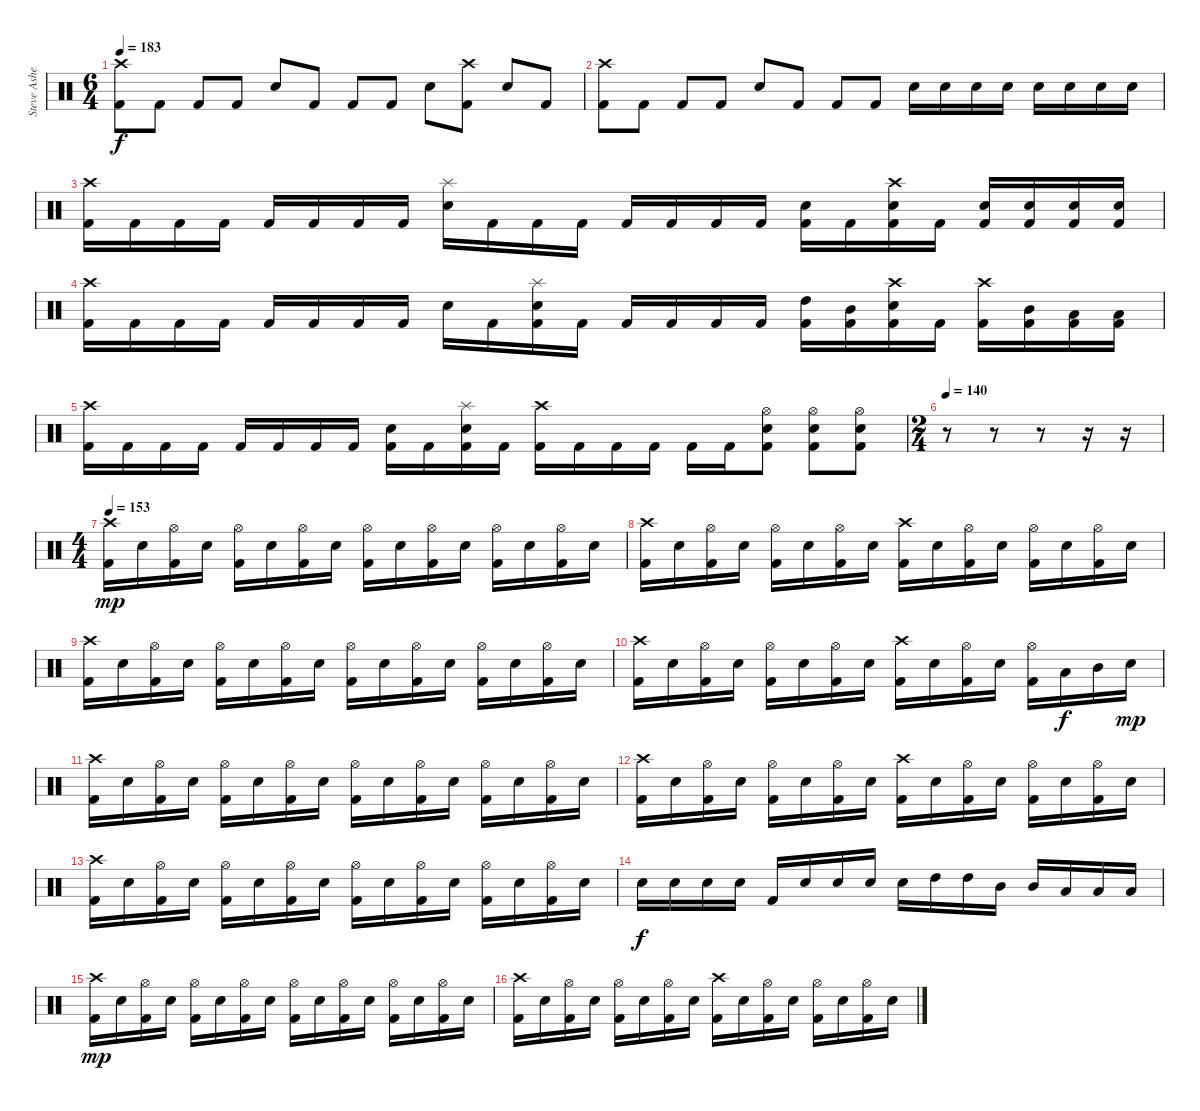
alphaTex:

\track ("Steve Asheim" "Steve Ashe") {instrument percussion}
\staff {score}
\articulation defaults
\ts (6 4)
\tempo 183
\clef neutral
\ks c
("Crash high (hit)" "Kick (hit) 2").8{dy f} "Kick (hit) 2".8 "Kick (hit) 2".8 "Kick (hit) 2".8 "Electric Snare (hit)".8 "Kick (hit) 2".8 "Kick (hit) 2".8 "Kick (hit) 2".8 "Electric Snare (hit)".8 ("Crash high (hit)" "Kick (hit) 2").8 "Electric Snare (hit)".8 "Kick (hit) 2".8 |
("Crash high (hit)" "Kick (hit) 2").8 "Kick (hit) 2".8 "Kick (hit) 2".8 "Kick (hit) 2".8 "Electric Snare (hit)".8 "Kick (hit) 2".8 "Kick (hit) 2".8 "Kick (hit) 2".8 "Electric Snare (hit)".16 "Electric Snare (hit)".16 "Electric Snare (hit)".16 "Electric Snare (hit)".16 "Electric Snare (hit)".16 "Electric Snare (hit)".16 "Electric Snare (hit)".16 "Electric Snare (hit)".16 |
("Crash high (hit)" "Kick (hit) 2").16 "Kick (hit) 2".16 "Kick (hit) 2".16 "Kick (hit) 2".16 "Kick (hit) 2".16 "Kick (hit) 2".16 "Kick (hit) 2".16 "Kick (hit) 2".16 ("Splash (hit)" "Electric Snare (hit)").16 "Kick (hit) 2".16 "Kick (hit) 2".16 "Kick (hit) 2".16 "Kick (hit) 2".16 "Kick (hit) 2".16 "Kick (hit) 2".16 "Kick (hit) 2".16 ("Electric Snare (hit)" "Kick (hit) 2").16 "Kick (hit) 2".16 ("Crash high (hit)" "Electric Snare (hit)" "Kick (hit) 2").16 "Kick (hit) 2".16 ("Snare (hit) 2" "Kick (hit) 2").16 ("Snare (hit) 2" "Kick (hit) 2").16 ("Snare (hit) 2" "Kick (hit) 2").16 ("Snare (hit) 2" "Kick (hit) 2").16 |
("Crash high (hit)" "Kick (hit) 2").16 "Kick (hit) 2".16 "Kick (hit) 2".16 "Kick (hit) 2".16 "Kick (hit) 2".16 "Kick (hit) 2".16 "Kick (hit) 2".16 "Kick (hit) 2".16 "Electric Snare (hit)".16 "Kick (hit) 2".16 ("Splash (hit)" "Electric Snare (hit)" "Kick (hit) 2").16 "Kick (hit) 2".16 "Kick (hit) 2".16 "Kick (hit) 2".16 "Kick (hit) 2".16 "Kick (hit) 2".16 ("High Tom (hit)" "Kick (hit) 2").16 ("Mid Tom (hit)" "Kick (hit) 2").16 ("Crash high (hit)" "Electric Snare (hit)" "Kick (hit) 2").16 "Kick (hit) 2".16 ("Crash high (hit)" "Kick (hit) 2").16 ("Mid Tom (hit)" "Kick (hit) 2").16 ("Low Tom (hit)" "Kick (hit) 2").16 ("Low Tom (hit)" "Kick (hit) 2").16 |
("Crash high (hit)" "Kick (hit) 2").16 "Kick (hit) 2".16 "Kick (hit) 2".16 "Kick (hit) 2".16 "Kick (hit) 2".16 "Kick (hit) 2".16 "Kick (hit) 2".16 "Kick (hit) 2".16 ("Electric Snare (hit)" "Kick (hit) 2").16 "Kick (hit) 2".16 ("Splash (hit)" "Electric Snare (hit)" "Kick (hit) 2").16 "Kick (hit) 2".16 ("Crash high (hit)" "Kick (hit) 2").16 "Kick (hit) 2".16 "Kick (hit) 2".16 "Kick (hit) 2".16 "Kick (hit) 2".16 "Kick (hit) 2".16 ("Hi-Hat (open)" "Kick (hit) 2" "Electric Snare (hit)").8 ("Hi-Hat (open)" "Kick (hit) 2" "Electric Snare (hit)").8 ("Hi-Hat (open)" "Kick (hit) 2" "Electric Snare (hit)").8 |
\ts (2 4)
\tempo 140
r.8 r.8 r.8 r.16 r.16 |
\ts (4 4)
\tempo 153
("Crash high (hit)" "Kick (hit) 2").16{dy mp} "Electric Snare (hit)".16 ("Hi-Hat (open)" "Kick (hit) 2").16 "Electric Snare (hit)".16 ("Hi-Hat (open)" "Kick (hit) 2").16 "Electric Snare (hit)".16 ("Hi-Hat (open)" "Kick (hit) 2").16 "Electric Snare (hit)".16 ("Hi-Hat (open)" "Kick (hit) 2").16 "Electric Snare (hit)".16 ("Hi-Hat (open)" "Kick (hit) 2").16 "Electric Snare (hit)".16 ("Hi-Hat (open)" "Kick (hit) 2").16 "Electric Snare (hit)".16 ("Hi-Hat (open)" "Kick (hit) 2").16 "Electric Snare (hit)".16 |
("Crash high (hit)" "Kick (hit) 2").16 "Electric Snare (hit)".16 ("Hi-Hat (open)" "Kick (hit) 2").16 "Electric Snare (hit)".16 ("Hi-Hat (open)" "Kick (hit) 2").16 "Electric Snare (hit)".16 ("Hi-Hat (open)" "Kick (hit) 2").16 "Electric Snare (hit)".16 ("Crash high (hit)" "Kick (hit) 2").16 "Electric Snare (hit)".16 ("Hi-Hat (open)" "Kick (hit) 2").16 "Electric Snare (hit)".16 ("Hi-Hat (open)" "Kick (hit) 2").16 "Electric Snare (hit)".16 ("Hi-Hat (open)" "Kick (hit) 2").16 "Electric Snare (hit)".16 |
("Crash high (hit)" "Kick (hit) 2").16 "Electric Snare (hit)".16 ("Hi-Hat (open)" "Kick (hit) 2").16 "Electric Snare (hit)".16 ("Hi-Hat (open)" "Kick (hit) 2").16 "Electric Snare (hit)".16 ("Hi-Hat (open)" "Kick (hit) 2").16 "Electric Snare (hit)".16 ("Hi-Hat (open)" "Kick (hit) 2").16 "Electric Snare (hit)".16 ("Hi-Hat (open)" "Kick (hit) 2").16 "Electric Snare (hit)".16 ("Hi-Hat (open)" "Kick (hit) 2").16 "Electric Snare (hit)".16 ("Hi-Hat (open)" "Kick (hit) 2").16 "Electric Snare (hit)".16 |
("Crash high (hit)" "Kick (hit) 2").16 "Electric Snare (hit)".16 ("Hi-Hat (open)" "Kick (hit) 2").16 "Electric Snare (hit)".16 ("Hi-Hat (open)" "Kick (hit) 2").16 "Electric Snare (hit)".16 ("Hi-Hat (open)" "Kick (hit) 2").16 "Electric Snare (hit)".16 ("Crash high (hit)" "Kick (hit) 2").16 "Electric Snare (hit)".16 ("Hi-Hat (open)" "Kick (hit) 2").16 "Electric Snare (hit)".16 ("Hi-Hat (open)" "Kick (hit) 2").16 "Low Tom (hit)".16{dy f} "Mid Tom (hit)".16 "Electric Snare (hit)".16{dy mp} |
("Crash high (hit)" "Kick (hit) 2").16 "Electric Snare (hit)".16 ("Hi-Hat (open)" "Kick (hit) 2").16 "Electric Snare (hit)".16 ("Hi-Hat (open)" "Kick (hit) 2").16 "Electric Snare (hit)".16 ("Hi-Hat (open)" "Kick (hit) 2").16 "Electric Snare (hit)".16 ("Hi-Hat (open)" "Kick (hit) 2").16 "Electric Snare (hit)".16 ("Hi-Hat (open)" "Kick (hit) 2").16 "Electric Snare (hit)".16 ("Hi-Hat (open)" "Kick (hit) 2").16 "Electric Snare (hit)".16 ("Hi-Hat (open)" "Kick (hit) 2").16 "Electric Snare (hit)".16 |
("Crash high (hit)" "Kick (hit) 2").16 "Electric Snare (hit)".16 ("Hi-Hat (open)" "Kick (hit) 2").16 "Electric Snare (hit)".16 ("Hi-Hat (open)" "Kick (hit) 2").16 "Electric Snare (hit)".16 ("Hi-Hat (open)" "Kick (hit) 2").16 "Electric Snare (hit)".16 ("Crash high (hit)" "Kick (hit) 2").16 "Electric Snare (hit)".16 ("Hi-Hat (open)" "Kick (hit) 2").16 "Electric Snare (hit)".16 ("Hi-Hat (open)" "Kick (hit) 2").16 "Electric Snare (hit)".16 ("Hi-Hat (open)" "Kick (hit) 2").16 "Electric Snare (hit)".16 |
("Crash high (hit)" "Kick (hit) 2").16 "Electric Snare (hit)".16 ("Hi-Hat (open)" "Kick (hit) 2").16 "Electric Snare (hit)".16 ("Hi-Hat (open)" "Kick (hit) 2").16 "Electric Snare (hit)".16 ("Hi-Hat (open)" "Kick (hit) 2").16 "Electric Snare (hit)".16 ("Hi-Hat (open)" "Kick (hit) 2").16 "Electric Snare (hit)".16 ("Hi-Hat (open)" "Kick (hit) 2").16 "Electric Snare (hit)".16 ("Hi-Hat (open)" "Kick (hit) 2").16 "Electric Snare (hit)".16 ("Hi-Hat (open)" "Kick (hit) 2").16 "Electric Snare (hit)".16 |
"Electric Snare (hit)".16{dy f} "Electric Snare (hit)".16 "Electric Snare (hit)".16 "Electric Snare (hit)".16 "Kick (hit) 2".16 "Electric Snare (hit)".16 "Electric Snare (hit)".16 "Electric Snare (hit)".16 "Electric Snare (hit)".16 "High Tom (hit)".16 "High Tom (hit)".16 "Mid Tom (hit)".16 "Mid Tom (hit)".16 "Low Tom (hit)".16 "Low Tom (hit)".16 "Low Tom (hit)".16 |
("Crash high (hit)" "Kick (hit) 2").16{dy mp} "Electric Snare (hit)".16 ("Hi-Hat (open)" "Kick (hit) 2").16 "Electric Snare (hit)".16 ("Hi-Hat (open)" "Kick (hit) 2").16 "Electric Snare (hit)".16 ("Hi-Hat (open)" "Kick (hit) 2").16 "Electric Snare (hit)".16 ("Hi-Hat (open)" "Kick (hit) 2").16 "Electric Snare (hit)".16 ("Hi-Hat (open)" "Kick (hit) 2").16 "Electric Snare (hit)".16 ("Hi-Hat (open)" "Kick (hit) 2").16 "Electric Snare (hit)".16 ("Hi-Hat (open)" "Kick (hit) 2").16 "Electric Snare (hit)".16 |
("Crash high (hit)" "Kick (hit) 2").16 "Electric Snare (hit)".16 ("Hi-Hat (open)" "Kick (hit) 2").16 "Electric Snare (hit)".16 ("Hi-Hat (open)" "Kick (hit) 2").16 "Electric Snare (hit)".16 ("Hi-Hat (open)" "Kick (hit) 2").16 "Electric Snare (hit)".16 ("Crash high (hit)" "Kick (hit) 2").16 "Electric Snare (hit)".16 ("Hi-Hat (open)" "Kick (hit) 2").16 "Electric Snare (hit)".16 ("Hi-Hat (open)" "Kick (hit) 2").16 "Electric Snare (hit)".16 ("Hi-Hat (open)" "Kick (hit) 2").16 "Electric Snare (hit)".16
